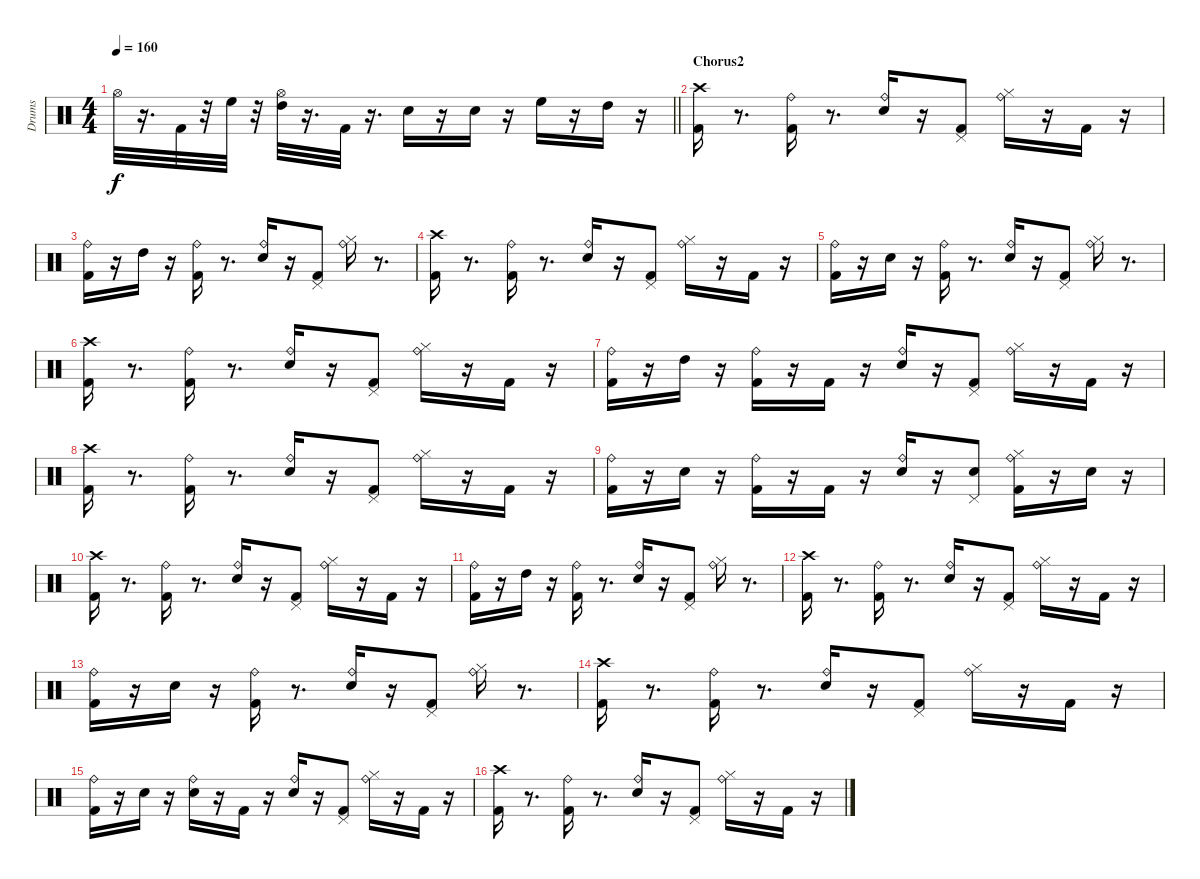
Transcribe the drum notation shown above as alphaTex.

\track ("Drums" "Drums") {instrument percussion}
\staff {score}
\articulation defaults
\ts (4 4)
\tempo 160
\clef neutral
\barLineRight lightlight
\ks c "Hi-Hat (open)".32{dy f}
r.16{d} "Kick (hit) 2".32 r.32 "High Floor Tom (hit)".32 r.32 ("Hi-Hat (open)" "High Tom (hit)").32 r.16{d} "Kick (hit) 2".32 r.16{d} "Snare (hit) 2".16 r.16 "Snare (hit) 2".16 r.16 "High Floor Tom (hit)".16 r.16 "High Tom (hit)".16 r.16 |
\section ("" "Chorus2")
("Kick (hit) 2" "Crash high (hit)").16 r.8{d} ("Kick (hit) 2" "Ride (bell)").16 r.8{d} ("Snare (hit) 2" "Ride (bell)").16 r.16 ("Kick (hit) 2" "Pedal Hi-Hat (hit)").8 ("Hi-Hat (closed)" "Ride (bell)").16 r.16 "Kick (hit) 2".16 r.16 |
("Kick (hit) 2" "Ride (bell)").16 r.16 "High Tom (hit)".16 r.16 ("Kick (hit) 2" "Ride (bell)").16 r.8{d} ("Snare (hit) 2" "Ride (bell)").16 r.16 ("Kick (hit) 2" "Pedal Hi-Hat (hit)").8 ("Hi-Hat (closed)" "Ride (bell)").16 r.8{d} |
("Kick (hit) 2" "Crash high (hit)").16 r.8{d} ("Kick (hit) 2" "Ride (bell)").16 r.8{d} ("Snare (hit) 2" "Ride (bell)").16 r.16 ("Kick (hit) 2" "Pedal Hi-Hat (hit)").8 ("Hi-Hat (closed)" "Ride (bell)").16 r.16 "Kick (hit) 2".16 r.16 |
("Kick (hit) 2" "Ride (bell)").16 r.16 "Snare (hit) 2".16 r.16 ("Kick (hit) 2" "Ride (bell)").16 r.8{d} ("Snare (hit) 2" "Ride (bell)").16 r.16 ("Kick (hit) 2" "Pedal Hi-Hat (hit)").8 ("Hi-Hat (closed)" "Ride (bell)").16 r.8{d} |
("Kick (hit) 2" "Crash high (hit)").16 r.8{d} ("Kick (hit) 2" "Ride (bell)").16 r.8{d} ("Snare (hit) 2" "Ride (bell)").16 r.16 ("Kick (hit) 2" "Pedal Hi-Hat (hit)").8 ("Hi-Hat (closed)" "Ride (bell)").16 r.16 "Kick (hit) 2".16 r.16 |
("Kick (hit) 2" "Ride (bell)").16 r.16 "High Tom (hit)".16 r.16 ("Kick (hit) 2" "Ride (bell)").16 r.16 "Kick (hit) 2".16 r.16 ("Snare (hit) 2" "Ride (bell)").16 r.16 ("Kick (hit) 2" "Pedal Hi-Hat (hit)").8 ("Hi-Hat (closed)" "Ride (bell)").16 r.16 "Kick (hit) 2".16 r.16 |
("Kick (hit) 2" "Crash high (hit)").16 r.8{d} ("Kick (hit) 2" "Ride (bell)").16 r.8{d} ("Snare (hit) 2" "Ride (bell)").16 r.16 ("Kick (hit) 2" "Pedal Hi-Hat (hit)").8 ("Hi-Hat (closed)" "Ride (bell)").16 r.16 "Kick (hit) 2".16 r.16 |
("Kick (hit) 2" "Ride (bell)").16 r.16 "Snare (hit) 2".16 r.16 ("Kick (hit) 2" "Ride (bell)").16 r.16 "Kick (hit) 2".16 r.16 ("Snare (hit) 2" "Ride (bell)").16 r.16 ("Snare (hit) 2" "Pedal Hi-Hat (hit)").8 ("Kick (hit) 2" "Hi-Hat (closed)" "Ride (bell)").16 r.16 "Snare (hit) 2".16 r.16 |
("Kick (hit) 2" "Crash high (hit)").16 r.8{d} ("Kick (hit) 2" "Ride (bell)").16 r.8{d} ("Snare (hit) 2" "Ride (bell)").16 r.16 ("Kick (hit) 2" "Pedal Hi-Hat (hit)").8 ("Hi-Hat (closed)" "Ride (bell)").16 r.16 "Kick (hit) 2".16 r.16 |
("Kick (hit) 2" "Ride (bell)").16 r.16 "High Tom (hit)".16 r.16 ("Kick (hit) 2" "Ride (bell)").16 r.8{d} ("Snare (hit) 2" "Ride (bell)").16 r.16 ("Kick (hit) 2" "Pedal Hi-Hat (hit)").8 ("Hi-Hat (closed)" "Ride (bell)").16 r.8{d} |
("Kick (hit) 2" "Crash high (hit)").16 r.8{d} ("Kick (hit) 2" "Ride (bell)").16 r.8{d} ("Snare (hit) 2" "Ride (bell)").16 r.16 ("Kick (hit) 2" "Pedal Hi-Hat (hit)").8 ("Hi-Hat (closed)" "Ride (bell)").16 r.16 "Kick (hit) 2".16 r.16 |
("Kick (hit) 2" "Ride (bell)").16 r.16 "Snare (hit) 2".16 r.16 ("Kick (hit) 2" "Ride (bell)").16 r.8{d} ("Snare (hit) 2" "Ride (bell)").16 r.16 ("Kick (hit) 2" "Pedal Hi-Hat (hit)").8 ("Hi-Hat (closed)" "Ride (bell)").16 r.8{d} |
("Kick (hit) 2" "Crash high (hit)").16 r.8{d} ("Kick (hit) 2" "Ride (bell)").16 r.8{d} ("Snare (hit) 2" "Ride (bell)").16 r.16 ("Kick (hit) 2" "Pedal Hi-Hat (hit)").8 ("Hi-Hat (closed)" "Ride (bell)").16 r.16 "Kick (hit) 2".16 r.16 |
("Kick (hit) 2" "Ride (bell)").16 r.16 "Snare (hit) 2".16 r.16 ("Snare (hit) 2" "Ride (bell)").16 r.16 "Kick (hit) 2".16 r.16 ("Snare (hit) 2" "Ride (bell)").16 r.16 ("Kick (hit) 2" "Pedal Hi-Hat (hit)").8 ("Hi-Hat (closed)" "Ride (bell)").16 r.16 "Kick (hit) 2".16 r.16 |
("Kick (hit) 2" "Crash high (hit)").16 r.8{d} ("Kick (hit) 2" "Ride (bell)").16 r.8{d} ("Snare (hit) 2" "Ride (bell)").16 r.16 ("Kick (hit) 2" "Pedal Hi-Hat (hit)").8 ("Hi-Hat (closed)" "Ride (bell)").16 r.16 "Kick (hit) 2".16 r.16
